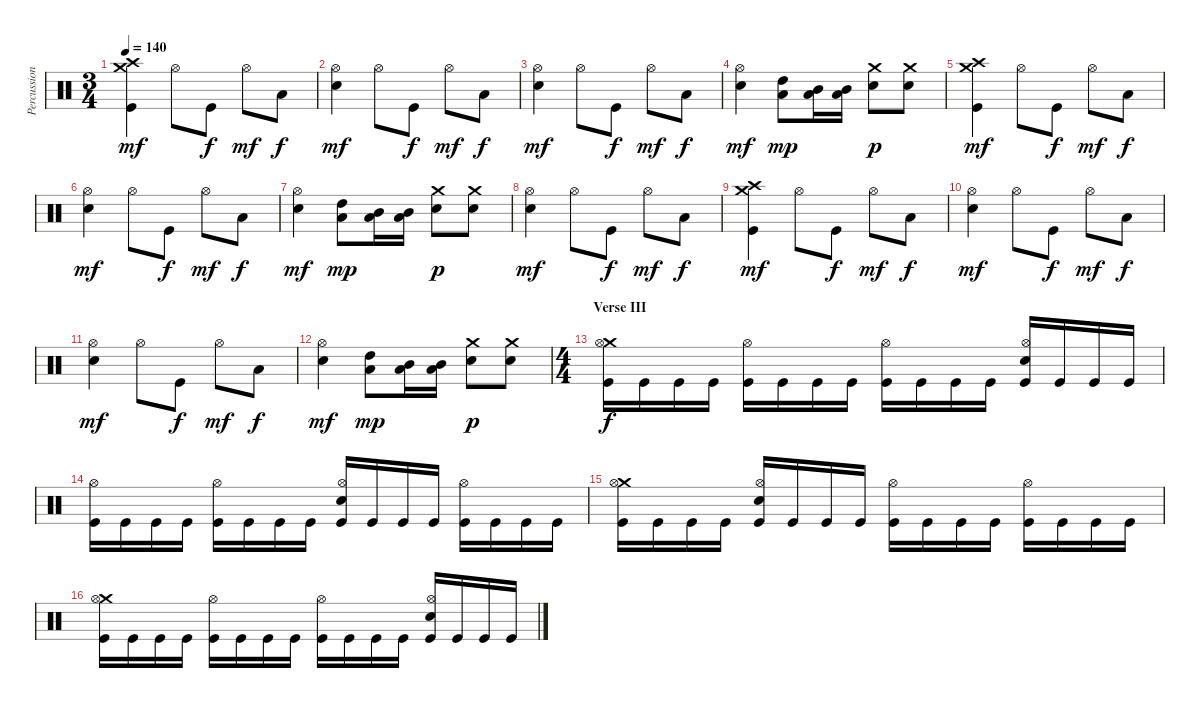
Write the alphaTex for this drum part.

\track ("Percussion" "Percussion") {instrument percussion}
\staff {score}
\articulation defaults
\ts (3 4)
\tempo 140
\clef neutral
\ks c
("Kick (hit)" "Crash high (hit)" "Crash medium (hit)").4{dy mf} "Hi-Hat (open)".8 "Kick (hit)".8{dy f} "Hi-Hat (open)".8{dy mf} "Low Floor Tom (hit)".8{dy f} |
("Electric Snare (hit)" "Hi-Hat (open)").4{dy mf} "Hi-Hat (open)".8 "Kick (hit)".8{dy f} "Hi-Hat (open)".8{dy mf} "Low Floor Tom (hit)".8{dy f} |
("Electric Snare (hit)" "Hi-Hat (open)").4{dy mf} "Hi-Hat (open)".8 "Kick (hit)".8{dy f} "Hi-Hat (open)".8{dy mf} "Low Floor Tom (hit)".8{dy f} |
("Electric Snare (hit)" "Hi-Hat (open)").4{dy mf} ("Low Tom (hit)" "High Tom (hit)").8{dy mp} ("Low Tom (hit)" "Mid Tom (hit)").16 ("Low Tom (hit)" "Mid Tom (hit)").16 ("Electric Snare (hit)" "Crash medium (hit)").8{dy p} ("Electric Snare (hit)" "Crash medium (hit)").8 |
("Kick (hit)" "Crash high (hit)" "Crash medium (hit)").4{dy mf} "Hi-Hat (open)".8 "Kick (hit)".8{dy f} "Hi-Hat (open)".8{dy mf} "Low Floor Tom (hit)".8{dy f} |
("Electric Snare (hit)" "Hi-Hat (open)").4{dy mf} "Hi-Hat (open)".8 "Kick (hit)".8{dy f} "Hi-Hat (open)".8{dy mf} "Low Floor Tom (hit)".8{dy f} |
("Electric Snare (hit)" "Hi-Hat (open)").4{dy mf} ("Low Tom (hit)" "High Tom (hit)").8{dy mp} ("Low Tom (hit)" "Mid Tom (hit)").16 ("Low Tom (hit)" "Mid Tom (hit)").16 ("Electric Snare (hit)" "Crash medium (hit)").8{dy p} ("Electric Snare (hit)" "Crash medium (hit)").8 |
("Electric Snare (hit)" "Hi-Hat (open)").4{dy mf} "Hi-Hat (open)".8 "Kick (hit)".8{dy f} "Hi-Hat (open)".8{dy mf} "Low Floor Tom (hit)".8{dy f} |
("Kick (hit)" "Crash high (hit)" "Crash medium (hit)").4{dy mf} "Hi-Hat (open)".8 "Kick (hit)".8{dy f} "Hi-Hat (open)".8{dy mf} "Low Floor Tom (hit)".8{dy f} |
("Electric Snare (hit)" "Hi-Hat (open)").4{dy mf} "Hi-Hat (open)".8 "Kick (hit)".8{dy f} "Hi-Hat (open)".8{dy mf} "Low Floor Tom (hit)".8{dy f} |
("Electric Snare (hit)" "Hi-Hat (open)").4{dy mf} "Hi-Hat (open)".8 "Kick (hit)".8{dy f} "Hi-Hat (open)".8{dy mf} "Low Floor Tom (hit)".8{dy f} |
("Electric Snare (hit)" "Hi-Hat (open)").4{dy mf} ("Low Tom (hit)" "High Tom (hit)").8{dy mp} ("Low Tom (hit)" "Mid Tom (hit)").16 ("Low Tom (hit)" "Mid Tom (hit)").16 ("Electric Snare (hit)" "Crash medium (hit)").8{dy p} ("Electric Snare (hit)" "Crash medium (hit)").8 |
\ts (4 4)
\section ("" "Verse III")
("Crash medium (hit)" "Hi-Hat (open)" "Kick (hit)").16{dy f} "Kick (hit)".16 "Kick (hit)".16 "Kick (hit)".16 ("Hi-Hat (open)" "Kick (hit)").16 "Kick (hit)".16 "Kick (hit)".16 "Kick (hit)".16 ("Hi-Hat (open)" "Kick (hit)").16 "Kick (hit)".16 "Kick (hit)".16 "Kick (hit)".16 ("Electric Snare (hit)" "Hi-Hat (open)" "Kick (hit)").16 "Kick (hit)".16 "Kick (hit)".16 "Kick (hit)".16 |
("Hi-Hat (open)" "Kick (hit)").16 "Kick (hit)".16 "Kick (hit)".16 "Kick (hit)".16 ("Hi-Hat (open)" "Kick (hit)").16 "Kick (hit)".16 "Kick (hit)".16 "Kick (hit)".16 ("Electric Snare (hit)" "Hi-Hat (open)" "Kick (hit)").16 "Kick (hit)".16 "Kick (hit)".16 "Kick (hit)".16 ("Hi-Hat (open)" "Kick (hit)").16 "Kick (hit)".16 "Kick (hit)".16 "Kick (hit)".16 |
("Crash medium (hit)" "Hi-Hat (open)" "Kick (hit)").16 "Kick (hit)".16 "Kick (hit)".16 "Kick (hit)".16 ("Electric Snare (hit)" "Hi-Hat (open)" "Kick (hit)").16 "Kick (hit)".16 "Kick (hit)".16 "Kick (hit)".16 ("Hi-Hat (open)" "Kick (hit)").16 "Kick (hit)".16 "Kick (hit)".16 "Kick (hit)".16 ("Hi-Hat (open)" "Kick (hit)").16 "Kick (hit)".16 "Kick (hit)".16 "Kick (hit)".16 |
("Crash medium (hit)" "Hi-Hat (open)" "Kick (hit)").16 "Kick (hit)".16 "Kick (hit)".16 "Kick (hit)".16 ("Hi-Hat (open)" "Kick (hit)").16 "Kick (hit)".16 "Kick (hit)".16 "Kick (hit)".16 ("Hi-Hat (open)" "Kick (hit)").16 "Kick (hit)".16 "Kick (hit)".16 "Kick (hit)".16 ("Electric Snare (hit)" "Hi-Hat (open)" "Kick (hit)").16 "Kick (hit)".16 "Kick (hit)".16 "Kick (hit)".16
